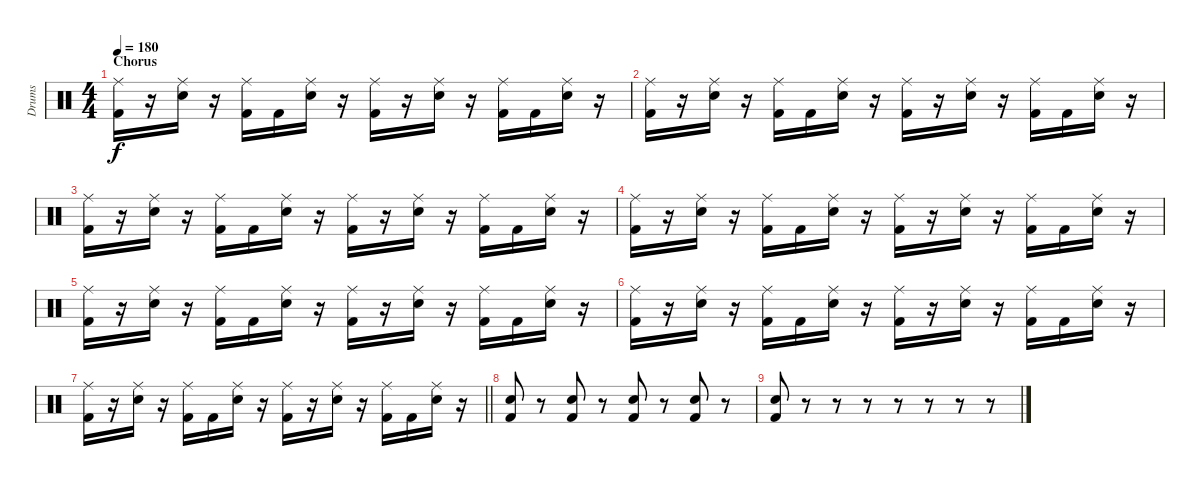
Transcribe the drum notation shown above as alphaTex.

\track ("Drums" "Drums") {instrument percussion}
\staff {score}
\articulation defaults
\ts (4 4)
\section ("" "Chorus")
\tempo 180
\clef neutral
\ks c
("Ride (middle)" "Kick (hit) 2").16{dy f} r.16 ("Ride (middle)" "Snare (hit) 2").16 r.16 ("Ride (middle)" "Kick (hit) 2").16 "Kick (hit) 2".16 ("Ride (middle)" "Snare (hit) 2").16 r.16 ("Ride (middle)" "Kick (hit) 2").16 r.16 ("Ride (middle)" "Snare (hit) 2").16 r.16 ("Ride (middle)" "Kick (hit) 2").16 "Kick (hit) 2".16 ("Ride (middle)" "Snare (hit) 2").16 r.16 |
("Ride (middle)" "Kick (hit) 2").16 r.16 ("Ride (middle)" "Snare (hit) 2").16 r.16 ("Ride (middle)" "Kick (hit) 2").16 "Kick (hit) 2".16 ("Ride (middle)" "Snare (hit) 2").16 r.16 ("Ride (middle)" "Kick (hit) 2").16 r.16 ("Ride (middle)" "Snare (hit) 2").16 r.16 ("Ride (middle)" "Kick (hit) 2").16 "Kick (hit) 2".16 ("Ride (middle)" "Snare (hit) 2").16 r.16 |
("Ride (middle)" "Kick (hit) 2").16 r.16 ("Ride (middle)" "Snare (hit) 2").16 r.16 ("Ride (middle)" "Kick (hit) 2").16 "Kick (hit) 2".16 ("Ride (middle)" "Snare (hit) 2").16 r.16 ("Ride (middle)" "Kick (hit) 2").16 r.16 ("Ride (middle)" "Snare (hit) 2").16 r.16 ("Ride (middle)" "Kick (hit) 2").16 "Kick (hit) 2".16 ("Ride (middle)" "Snare (hit) 2").16 r.16 |
("Ride (middle)" "Kick (hit) 2").16 r.16 ("Ride (middle)" "Snare (hit) 2").16 r.16 ("Ride (middle)" "Kick (hit) 2").16 "Kick (hit) 2".16 ("Ride (middle)" "Snare (hit) 2").16 r.16 ("Ride (middle)" "Kick (hit) 2").16 r.16 ("Ride (middle)" "Snare (hit) 2").16 r.16 ("Ride (middle)" "Kick (hit) 2").16 "Kick (hit) 2".16 ("Ride (middle)" "Snare (hit) 2").16 r.16 |
("Ride (middle)" "Kick (hit) 2").16 r.16 ("Ride (middle)" "Snare (hit) 2").16 r.16 ("Ride (middle)" "Kick (hit) 2").16 "Kick (hit) 2".16 ("Ride (middle)" "Snare (hit) 2").16 r.16 ("Ride (middle)" "Kick (hit) 2").16 r.16 ("Ride (middle)" "Snare (hit) 2").16 r.16 ("Ride (middle)" "Kick (hit) 2").16 "Kick (hit) 2".16 ("Ride (middle)" "Snare (hit) 2").16 r.16 |
("Ride (middle)" "Kick (hit) 2").16 r.16 ("Ride (middle)" "Snare (hit) 2").16 r.16 ("Ride (middle)" "Kick (hit) 2").16 "Kick (hit) 2".16 ("Ride (middle)" "Snare (hit) 2").16 r.16 ("Ride (middle)" "Kick (hit) 2").16 r.16 ("Ride (middle)" "Snare (hit) 2").16 r.16 ("Ride (middle)" "Kick (hit) 2").16 "Kick (hit) 2".16 ("Ride (middle)" "Snare (hit) 2").16 r.16 |
\barLineRight lightlight
("Ride (middle)" "Kick (hit) 2").16 r.16 ("Ride (middle)" "Snare (hit) 2").16 r.16 ("Ride (middle)" "Kick (hit) 2").16 "Kick (hit) 2".16 ("Ride (middle)" "Snare (hit) 2").16 r.16 ("Ride (middle)" "Kick (hit) 2").16 r.16 ("Ride (middle)" "Snare (hit) 2").16 r.16 ("Ride (middle)" "Kick (hit) 2").16 "Kick (hit) 2".16 ("Ride (middle)" "Snare (hit) 2").16 r.16 |
\section ("" "")
("Snare (hit) 2" "Kick (hit) 2").8 r.8 ("Snare (hit) 2" "Kick (hit) 2").8 r.8 ("Snare (hit) 2" "Kick (hit) 2").8 r.8 ("Snare (hit) 2" "Kick (hit) 2").8 r.8 |
("Snare (hit) 2" "Kick (hit) 2").8 r.8 r.8 r.8 r.8 r.8 r.8 r.8
